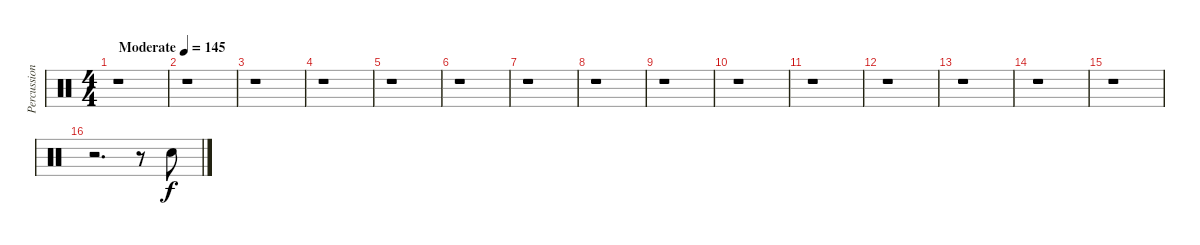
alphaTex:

\track ("Percussion" "Percussion") {instrument percussion}
\staff {score}
\articulation defaults
\ts (4 4)
\tempo (145 "Moderate")
\clef neutral
\ks c
r.1{dy f} |
r.1 |
r.1 |
r.1 |
r.1 |
r.1 |
r.1 |
r.1 |
r.1 |
r.1 |
r.1 |
r.1 |
r.1 |
r.1 |
r.1 |
r.2{d} r.8 "Snare (hit) 2".8
